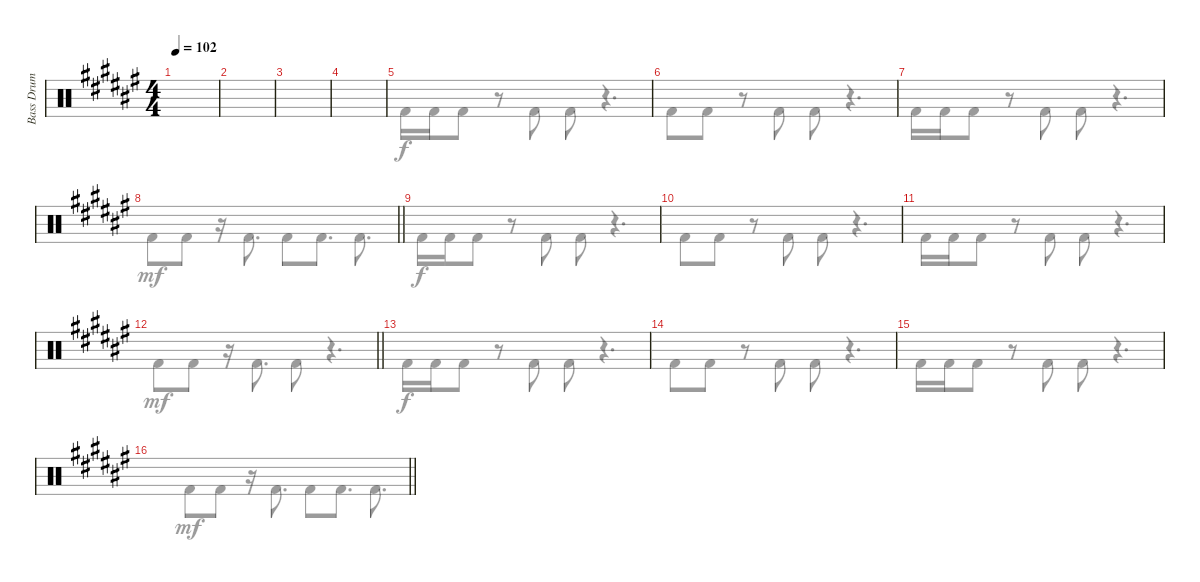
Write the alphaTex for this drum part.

\track ("Bass Drum" "Bass Drum") {instrument percussion}
\staff {score}
\articulation defaults
\voice
\ts (4 4)
\tempo 102
\clef neutral
\ks d#minor
|
|
|
|
|
|
|
\barLineRight lightlight
|
|
|
|
\barLineRight lightlight
|
|
|
|
\barLineRight lightlight
\voice
\clef neutral
\ks d#minor
|
|
|
|
"Kick (hit) 2".16{dy f} "Kick (hit) 2".16 "Kick (hit) 2".8 r.8 "Kick (hit) 2".8 "Kick (hit) 2".8 r.4{d} |
"Kick (hit) 2".8 "Kick (hit) 2".8 r.8 "Kick (hit) 2".8 "Kick (hit) 2".8 r.4{d} |
"Kick (hit) 2".16 "Kick (hit) 2".16 "Kick (hit) 2".8 r.8 "Kick (hit) 2".8 "Kick (hit) 2".8 r.4{d} |
\barLineRight lightlight "Kick (hit) 2".8{dy mf} "Kick (hit) 2".8
r.16 "Kick (hit) 2".8{d} "Kick (hit) 2".8 "Kick (hit) 2".8{d} "Kick (hit) 2".8{d} |
"Kick (hit) 2".16{dy f} "Kick (hit) 2".16 "Kick (hit) 2".8 r.8 "Kick (hit) 2".8 "Kick (hit) 2".8 r.4{d} |
"Kick (hit) 2".8 "Kick (hit) 2".8 r.8 "Kick (hit) 2".8 "Kick (hit) 2".8 r.4{d} |
"Kick (hit) 2".16 "Kick (hit) 2".16 "Kick (hit) 2".8 r.8 "Kick (hit) 2".8 "Kick (hit) 2".8 r.4{d} |
\barLineRight lightlight "Kick (hit) 2".8{dy mf} "Kick (hit) 2".8
r.16 "Kick (hit) 2".8{d} "Kick (hit) 2".8 r.4{d} |
"Kick (hit) 2".16{dy f} "Kick (hit) 2".16 "Kick (hit) 2".8 r.8 "Kick (hit) 2".8 "Kick (hit) 2".8 r.4{d} |
"Kick (hit) 2".8 "Kick (hit) 2".8 r.8 "Kick (hit) 2".8 "Kick (hit) 2".8 r.4{d} |
"Kick (hit) 2".16 "Kick (hit) 2".16 "Kick (hit) 2".8 r.8 "Kick (hit) 2".8 "Kick (hit) 2".8 r.4{d} |
\barLineRight lightlight "Kick (hit) 2".8{dy mf} "Kick (hit) 2".8
r.16 "Kick (hit) 2".8{d} "Kick (hit) 2".8 "Kick (hit) 2".8{d} "Kick (hit) 2".8{d}
